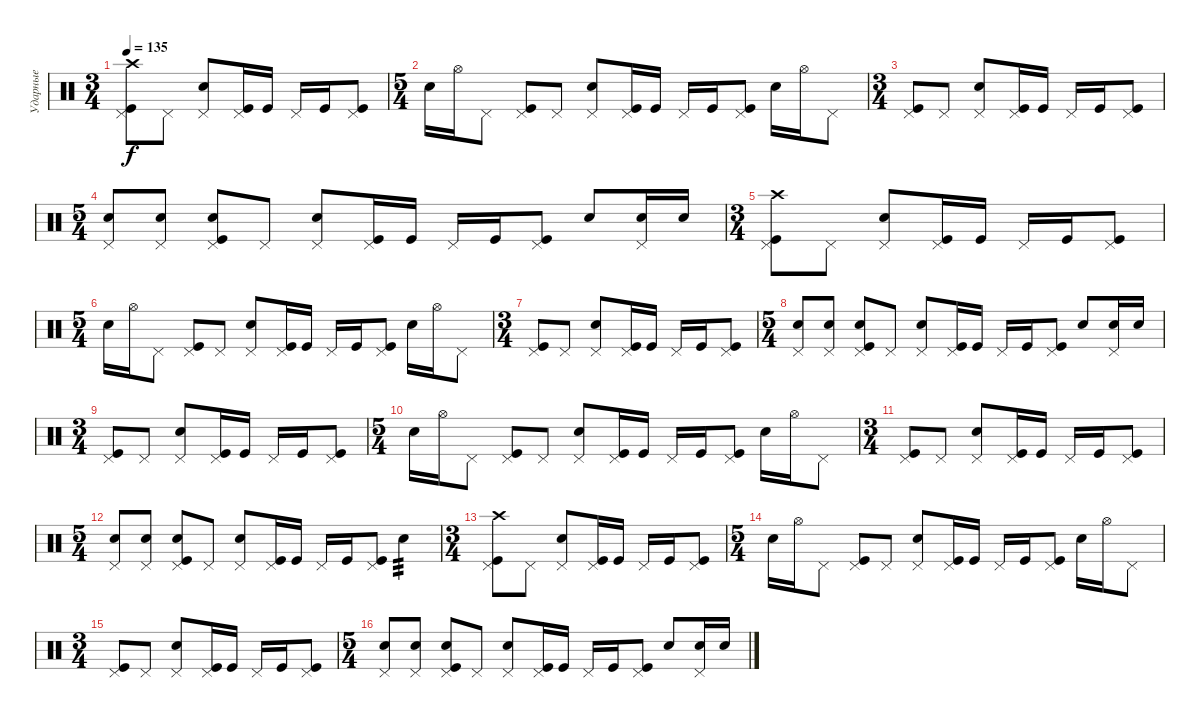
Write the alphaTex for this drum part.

\track ("Ударные" "Ударные") {instrument percussion}
\staff {score}
\articulation defaults
\ts (3 4)
\tempo 135
\clef neutral
\ks c
("Kick (hit)" "Pedal Hi-Hat (hit)" "Crash high (hit)").8{dy f} "Pedal Hi-Hat (hit)".8 ("Pedal Hi-Hat (hit)" "Electric Snare (hit)").8 ("Kick (hit)" "Pedal Hi-Hat (hit)").16 "Kick (hit)".16 "Pedal Hi-Hat (hit)".16 "Kick (hit)".16 ("Kick (hit)" "Pedal Hi-Hat (hit)").8 |
\ts (5 4)
"Electric Snare (hit)".16 "Hi-Hat (open)".16 "Pedal Hi-Hat (hit)".8 ("Kick (hit)" "Pedal Hi-Hat (hit)").8 "Pedal Hi-Hat (hit)".8 ("Pedal Hi-Hat (hit)" "Electric Snare (hit)").8 ("Kick (hit)" "Pedal Hi-Hat (hit)").16 "Kick (hit)".16 "Pedal Hi-Hat (hit)".16 "Kick (hit)".16 ("Kick (hit)" "Pedal Hi-Hat (hit)").8 "Electric Snare (hit)".16 "Hi-Hat (open)".16 "Pedal Hi-Hat (hit)".8 |
\ts (3 4)
("Kick (hit)" "Pedal Hi-Hat (hit)").8 "Pedal Hi-Hat (hit)".8 ("Pedal Hi-Hat (hit)" "Electric Snare (hit)").8 ("Kick (hit)" "Pedal Hi-Hat (hit)").16 "Kick (hit)".16 "Pedal Hi-Hat (hit)".16 "Kick (hit)".16 ("Kick (hit)" "Pedal Hi-Hat (hit)").8 |
\ts (5 4)
("Pedal Hi-Hat (hit)" "Electric Snare (hit)").8 ("Pedal Hi-Hat (hit)" "Electric Snare (hit)").8 ("Kick (hit)" "Pedal Hi-Hat (hit)" "Electric Snare (hit)").8 "Pedal Hi-Hat (hit)".8 ("Pedal Hi-Hat (hit)" "Electric Snare (hit)").8 ("Kick (hit)" "Pedal Hi-Hat (hit)").16 "Kick (hit)".16 "Pedal Hi-Hat (hit)".16 "Kick (hit)".16 ("Kick (hit)" "Pedal Hi-Hat (hit)").8 "Electric Snare (hit)".8 ("Pedal Hi-Hat (hit)" "Electric Snare (hit)").16 "Electric Snare (hit)".16 |
\ts (3 4)
("Kick (hit)" "Pedal Hi-Hat (hit)" "Crash high (hit)").8 "Pedal Hi-Hat (hit)".8 ("Pedal Hi-Hat (hit)" "Electric Snare (hit)").8 ("Kick (hit)" "Pedal Hi-Hat (hit)").16 "Kick (hit)".16 "Pedal Hi-Hat (hit)".16 "Kick (hit)".16 ("Kick (hit)" "Pedal Hi-Hat (hit)").8 |
\ts (5 4)
"Electric Snare (hit)".16 "Hi-Hat (open)".16 "Pedal Hi-Hat (hit)".8 ("Kick (hit)" "Pedal Hi-Hat (hit)").8 "Pedal Hi-Hat (hit)".8 ("Pedal Hi-Hat (hit)" "Electric Snare (hit)").8 ("Kick (hit)" "Pedal Hi-Hat (hit)").16 "Kick (hit)".16 "Pedal Hi-Hat (hit)".16 "Kick (hit)".16 ("Kick (hit)" "Pedal Hi-Hat (hit)").8 "Electric Snare (hit)".16 "Hi-Hat (open)".16 "Pedal Hi-Hat (hit)".8 |
\ts (3 4)
("Kick (hit)" "Pedal Hi-Hat (hit)").8 "Pedal Hi-Hat (hit)".8 ("Pedal Hi-Hat (hit)" "Electric Snare (hit)").8 ("Kick (hit)" "Pedal Hi-Hat (hit)").16 "Kick (hit)".16 "Pedal Hi-Hat (hit)".16 "Kick (hit)".16 ("Kick (hit)" "Pedal Hi-Hat (hit)").8 |
\ts (5 4)
("Pedal Hi-Hat (hit)" "Electric Snare (hit)").8 ("Pedal Hi-Hat (hit)" "Electric Snare (hit)").8 ("Kick (hit)" "Pedal Hi-Hat (hit)" "Electric Snare (hit)").8 "Pedal Hi-Hat (hit)".8 ("Pedal Hi-Hat (hit)" "Electric Snare (hit)").8 ("Kick (hit)" "Pedal Hi-Hat (hit)").16 "Kick (hit)".16 "Pedal Hi-Hat (hit)".16 "Kick (hit)".16 ("Kick (hit)" "Pedal Hi-Hat (hit)").8 "Electric Snare (hit)".8 ("Pedal Hi-Hat (hit)" "Electric Snare (hit)").16 "Electric Snare (hit)".16 |
\ts (3 4)
("Kick (hit)" "Pedal Hi-Hat (hit)").8 "Pedal Hi-Hat (hit)".8 ("Pedal Hi-Hat (hit)" "Electric Snare (hit)").8 ("Kick (hit)" "Pedal Hi-Hat (hit)").16 "Kick (hit)".16 "Pedal Hi-Hat (hit)".16 "Kick (hit)".16 ("Kick (hit)" "Pedal Hi-Hat (hit)").8 |
\ts (5 4)
"Electric Snare (hit)".16 "Hi-Hat (open)".16 "Pedal Hi-Hat (hit)".8 ("Kick (hit)" "Pedal Hi-Hat (hit)").8 "Pedal Hi-Hat (hit)".8 ("Pedal Hi-Hat (hit)" "Electric Snare (hit)").8 ("Kick (hit)" "Pedal Hi-Hat (hit)").16 "Kick (hit)".16 "Pedal Hi-Hat (hit)".16 "Kick (hit)".16 ("Kick (hit)" "Pedal Hi-Hat (hit)").8 "Electric Snare (hit)".16 "Hi-Hat (open)".16 "Pedal Hi-Hat (hit)".8 |
\ts (3 4)
("Kick (hit)" "Pedal Hi-Hat (hit)").8 "Pedal Hi-Hat (hit)".8 ("Pedal Hi-Hat (hit)" "Electric Snare (hit)").8 ("Kick (hit)" "Pedal Hi-Hat (hit)").16 "Kick (hit)".16 "Pedal Hi-Hat (hit)".16 "Kick (hit)".16 ("Kick (hit)" "Pedal Hi-Hat (hit)").8 |
\ts (5 4)
("Pedal Hi-Hat (hit)" "Electric Snare (hit)").8 ("Pedal Hi-Hat (hit)" "Electric Snare (hit)").8 ("Kick (hit)" "Pedal Hi-Hat (hit)" "Electric Snare (hit)").8 "Pedal Hi-Hat (hit)".8 ("Pedal Hi-Hat (hit)" "Electric Snare (hit)").8 ("Kick (hit)" "Pedal Hi-Hat (hit)").16 "Kick (hit)".16 "Pedal Hi-Hat (hit)".16 "Kick (hit)".16 ("Kick (hit)" "Pedal Hi-Hat (hit)").8 "Electric Snare (hit)".4{tp 3} |
\ts (3 4)
("Kick (hit)" "Pedal Hi-Hat (hit)" "Crash high (hit)").8 "Pedal Hi-Hat (hit)".8 ("Pedal Hi-Hat (hit)" "Electric Snare (hit)").8 ("Kick (hit)" "Pedal Hi-Hat (hit)").16 "Kick (hit)".16 "Pedal Hi-Hat (hit)".16 "Kick (hit)".16 ("Kick (hit)" "Pedal Hi-Hat (hit)").8 |
\ts (5 4)
"Electric Snare (hit)".16 "Hi-Hat (open)".16 "Pedal Hi-Hat (hit)".8 ("Kick (hit)" "Pedal Hi-Hat (hit)").8 "Pedal Hi-Hat (hit)".8 ("Pedal Hi-Hat (hit)" "Electric Snare (hit)").8 ("Kick (hit)" "Pedal Hi-Hat (hit)").16 "Kick (hit)".16 "Pedal Hi-Hat (hit)".16 "Kick (hit)".16 ("Kick (hit)" "Pedal Hi-Hat (hit)").8 "Electric Snare (hit)".16 "Hi-Hat (open)".16 "Pedal Hi-Hat (hit)".8 |
\ts (3 4)
("Kick (hit)" "Pedal Hi-Hat (hit)").8 "Pedal Hi-Hat (hit)".8 ("Pedal Hi-Hat (hit)" "Electric Snare (hit)").8 ("Kick (hit)" "Pedal Hi-Hat (hit)").16 "Kick (hit)".16 "Pedal Hi-Hat (hit)".16 "Kick (hit)".16 ("Kick (hit)" "Pedal Hi-Hat (hit)").8 |
\ts (5 4)
("Pedal Hi-Hat (hit)" "Electric Snare (hit)").8 ("Pedal Hi-Hat (hit)" "Electric Snare (hit)").8 ("Kick (hit)" "Pedal Hi-Hat (hit)" "Electric Snare (hit)").8 "Pedal Hi-Hat (hit)".8 ("Pedal Hi-Hat (hit)" "Electric Snare (hit)").8 ("Kick (hit)" "Pedal Hi-Hat (hit)").16 "Kick (hit)".16 "Pedal Hi-Hat (hit)".16 "Kick (hit)".16 ("Kick (hit)" "Pedal Hi-Hat (hit)").8 "Electric Snare (hit)".8 ("Pedal Hi-Hat (hit)" "Electric Snare (hit)").16 "Electric Snare (hit)".16
